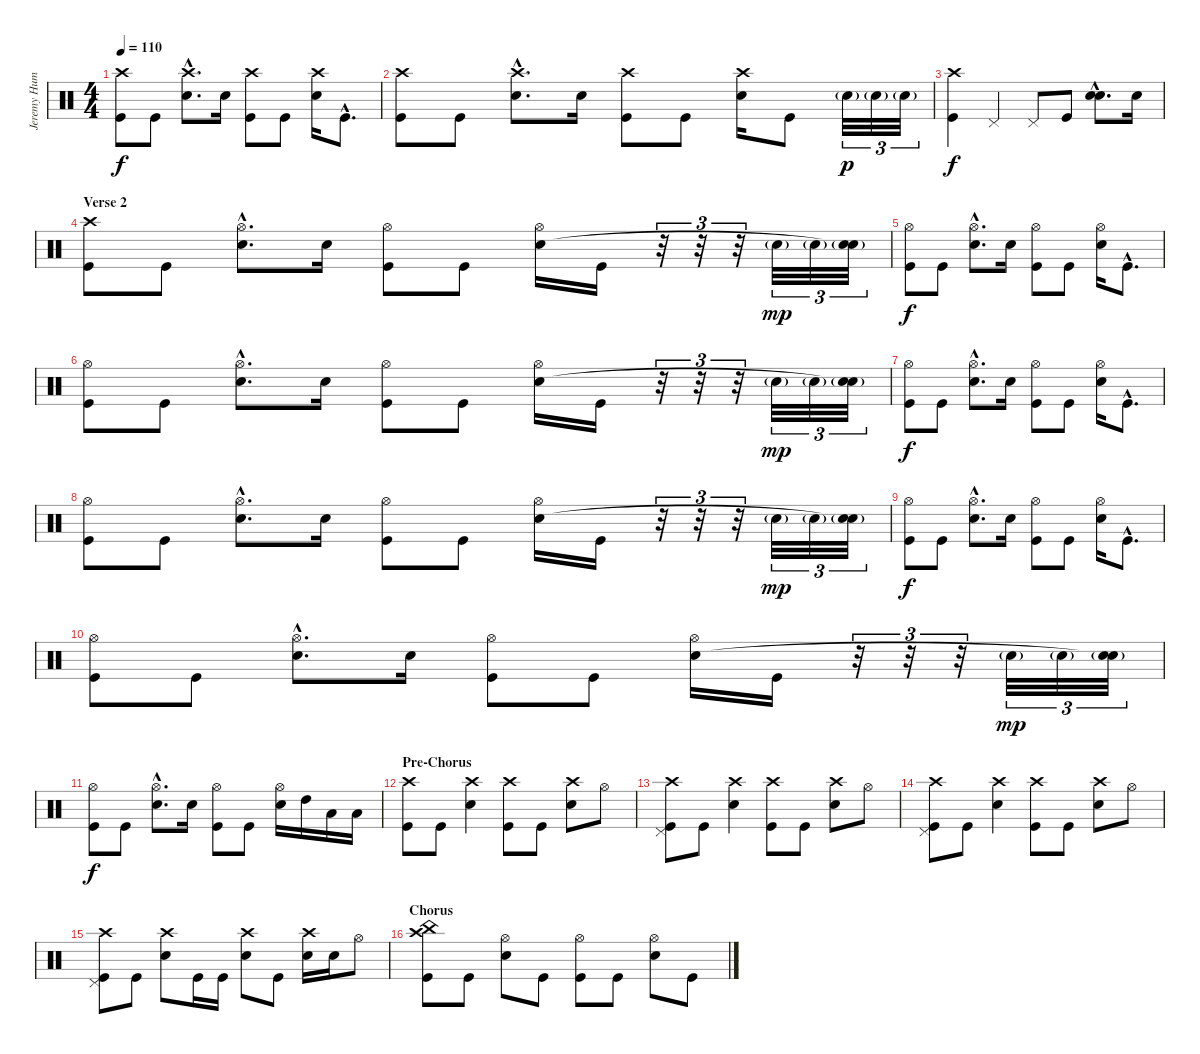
\track ("Jeremy Hummel" "Jeremy Hum") {instrument percussion}
\staff {score}
\articulation defaults
\ts (4 4)
\tempo 110
\clef neutral
\ks c
("Crash high (hit)" "Kick (hit)").8{dy f} "Kick (hit)".8 ("Crash high (hit)"{hac} "Electric Snare (hit)"{hac}).8{d} "Electric Snare (hit)".16 ("Crash high (hit)" "Kick (hit)").8 "Kick (hit)".8 ("Crash high (hit)" "Electric Snare (hit)").16 "Kick (hit)"{hac}.8{d} |
("Crash high (hit)" "Kick (hit)").8 "Kick (hit)".8 ("Crash high (hit)"{hac} "Electric Snare (hit)"{hac}).8{d} "Electric Snare (hit)".16 ("Crash high (hit)" "Kick (hit)").8 "Kick (hit)".8 ("Crash high (hit)" "Electric Snare (hit)").16 "Kick (hit)".8 "Electric Snare (hit)"{g}.32{tu (3 2) dy p} "Electric Snare (hit)"{g}.32{tu (3 2)} "Electric Snare (hit)"{g}.32{tu (3 2)} |
("Crash high (hit)" "Kick (hit)").4{dy f} "Pedal Hi-Hat (hit)".4 "Pedal Hi-Hat (hit)".8 "Kick (hit)".8 ("Snare (hit) 2"{hac} "Electric Snare (hit)"{hac}).8{d} "Electric Snare (hit)".16 |
\section ("" "Verse 2")
("Crash high (hit)" "Kick (hit)").8 "Kick (hit)".8 ("Hi-Hat (open)"{hac} "Electric Snare (hit)"{hac}).8{d} "Electric Snare (hit)".16 ("Hi-Hat (open)" "Kick (hit)").8 "Kick (hit)".8 ("Hi-Hat (open)" "Electric Snare (hit)").16 "Kick (hit)".16 r.32{tu (3 2)} r.32{tu (3 2)} r.32{tu (3 2)} "Electric Snare (hit)"{g}.32{tu (3 2) dy mp} "Electric Snare (hit)"{g}.32{tu (3 2)} ("Electric Snare (hit)"{g} "Snare (hit)"{t}).32{tu (3 2)} |
("Hi-Hat (open)" "Kick (hit)").8{dy f} "Kick (hit)".8 ("Hi-Hat (open)"{hac} "Electric Snare (hit)"{hac}).8{d} "Electric Snare (hit)".16 ("Hi-Hat (open)" "Kick (hit)").8 "Kick (hit)".8 ("Hi-Hat (open)" "Electric Snare (hit)").16 "Kick (hit)"{hac}.8{d} |
("Hi-Hat (open)" "Kick (hit)").8 "Kick (hit)".8 ("Hi-Hat (open)"{hac} "Electric Snare (hit)"{hac}).8{d} "Electric Snare (hit)".16 ("Hi-Hat (open)" "Kick (hit)").8 "Kick (hit)".8 ("Hi-Hat (open)" "Electric Snare (hit)").16 "Kick (hit)".16 r.32{tu (3 2)} r.32{tu (3 2)} r.32{tu (3 2)} "Electric Snare (hit)"{g}.32{tu (3 2) dy mp} "Electric Snare (hit)"{g}.32{tu (3 2)} ("Electric Snare (hit)"{g} "Snare (hit)"{t}).32{tu (3 2)} |
("Hi-Hat (open)" "Kick (hit)").8{dy f} "Kick (hit)".8 ("Hi-Hat (open)"{hac} "Electric Snare (hit)"{hac}).8{d} "Electric Snare (hit)".16 ("Hi-Hat (open)" "Kick (hit)").8 "Kick (hit)".8 ("Hi-Hat (open)" "Electric Snare (hit)").16 "Kick (hit)"{hac}.8{d} |
("Hi-Hat (open)" "Kick (hit)").8 "Kick (hit)".8 ("Hi-Hat (open)"{hac} "Electric Snare (hit)"{hac}).8{d} "Electric Snare (hit)".16 ("Hi-Hat (open)" "Kick (hit)").8 "Kick (hit)".8 ("Hi-Hat (open)" "Electric Snare (hit)").16 "Kick (hit)".16 r.32{tu (3 2)} r.32{tu (3 2)} r.32{tu (3 2)} "Electric Snare (hit)"{g}.32{tu (3 2) dy mp} "Electric Snare (hit)"{g}.32{tu (3 2)} ("Electric Snare (hit)"{g} "Snare (hit)"{t}).32{tu (3 2)} |
("Hi-Hat (open)" "Kick (hit)").8{dy f} "Kick (hit)".8 ("Hi-Hat (open)"{hac} "Electric Snare (hit)"{hac}).8{d} "Electric Snare (hit)".16 ("Hi-Hat (open)" "Kick (hit)").8 "Kick (hit)".8 ("Hi-Hat (open)" "Electric Snare (hit)").16 "Kick (hit)"{hac}.8{d} |
("Hi-Hat (open)" "Kick (hit)").8 "Kick (hit)".8 ("Hi-Hat (open)"{hac} "Electric Snare (hit)"{hac}).8{d} "Electric Snare (hit)".16 ("Hi-Hat (open)" "Kick (hit)").8 "Kick (hit)".8 ("Hi-Hat (open)" "Electric Snare (hit)").16 "Kick (hit)".16 r.32{tu (3 2)} r.32{tu (3 2)} r.32{tu (3 2)} "Electric Snare (hit)"{g}.32{tu (3 2) dy mp} "Electric Snare (hit)"{g}.32{tu (3 2)} ("Electric Snare (hit)"{g} "Snare (hit)"{t}).32{tu (3 2)} |
("Hi-Hat (open)" "Kick (hit)").8{dy f} "Kick (hit)".8 ("Hi-Hat (open)"{hac} "Electric Snare (hit)"{hac}).8{d} "Electric Snare (hit)".16 ("Hi-Hat (open)" "Kick (hit)").8 "Kick (hit)".8 ("Hi-Hat (open)" "Electric Snare (hit)").16 "High Tom (hit)".16 "Low Tom (hit)".16 "Low Floor Tom (hit)".16 |
\section ("" "Pre-Chorus")
("Crash high (hit)" "Kick (hit)").8 "Kick (hit)".8 ("Crash high (hit)" "Electric Snare (hit)").4 ("Crash high (hit)" "Kick (hit)").8 "Kick (hit)".8 ("Crash high (hit)" "Electric Snare (hit)").8 "Hi-Hat (open)".8 |
("Crash high (hit)" "Pedal Hi-Hat (hit)" "Kick (hit)").8 "Kick (hit)".8 ("Crash high (hit)" "Electric Snare (hit)").4 ("Crash high (hit)" "Kick (hit)").8 "Kick (hit)".8 ("Crash high (hit)" "Electric Snare (hit)").8 "Hi-Hat (open)".8 |
("Crash high (hit)" "Pedal Hi-Hat (hit)" "Kick (hit)").8 "Kick (hit)".8 ("Crash high (hit)" "Electric Snare (hit)").4 ("Crash high (hit)" "Kick (hit)").8 "Kick (hit)".8 ("Crash high (hit)" "Electric Snare (hit)").8 "Hi-Hat (open)".8 |
("Crash high (hit)" "Pedal Hi-Hat (hit)" "Kick (hit)").8 "Kick (hit)".8 ("Crash high (hit)" "Electric Snare (hit)").8 "Kick (hit)".16 "Kick (hit)".16 ("Crash high (hit)" "Electric Snare (hit)").8 "Kick (hit)".8 ("Crash high (hit)" "Electric Snare (hit)").16 "Electric Snare (hit)".16 "Hi-Hat (open)".8 |
\section ("" "Chorus")
("China (hit)" "Crash high (hit)" "Kick (hit)").8 "Kick (hit)".8 ("Hi-Hat (open)" "Electric Snare (hit)").8 "Kick (hit)".8 ("Hi-Hat (open)" "Kick (hit)").8 "Kick (hit)".8 ("Hi-Hat (open)" "Electric Snare (hit)").8 "Kick (hit)".8
